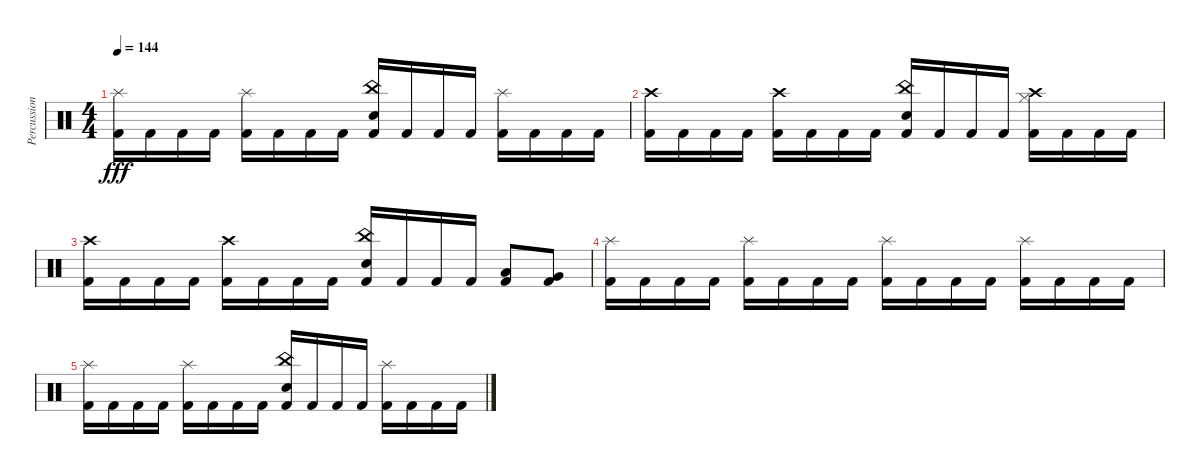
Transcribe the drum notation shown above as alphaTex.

\track ("Percussion" "Percussion") {instrument percussion}
\staff {score}
\articulation defaults
\ts (4 4)
\tempo 144
\clef neutral
\ks c
("Splash (hit)" "Kick (hit) 2").16{dy fff volume 5} "Kick (hit) 2".16 "Kick (hit) 2".16 "Kick (hit) 2".16 ("Splash (hit)" "Kick (hit) 2").16 "Kick (hit) 2".16 "Kick (hit) 2".16 "Kick (hit) 2".16 ("China (hit)" "Electric Snare (hit)" "Kick (hit) 2").16 "Kick (hit) 2".16 "Kick (hit) 2".16 "Kick (hit) 2".16 ("Splash (hit)" "Kick (hit) 2").16 "Kick (hit) 2".16 "Kick (hit) 2".16 "Kick (hit) 2".16 |
("Crash high (hit)" "Kick (hit) 2").16 "Kick (hit) 2".16 "Kick (hit) 2".16 "Kick (hit) 2".16 ("Crash high (hit)" "Kick (hit) 2").16 "Kick (hit) 2".16 "Kick (hit) 2".16 "Kick (hit) 2".16 ("China (hit)" "Electric Snare (hit)" "Kick (hit) 2").16 "Kick (hit) 2".16 "Kick (hit) 2".16 "Kick (hit) 2".16 ("Crash high (hit)" "Hi-Hat (closed)" "Kick (hit) 2").16 "Kick (hit) 2".16 "Kick (hit) 2".16 "Kick (hit) 2".16 |
("Crash high (hit)" "Kick (hit) 2").16{volume 2} "Kick (hit) 2".16 "Kick (hit) 2".16 "Kick (hit) 2".16 ("Crash high (hit)" "Kick (hit) 2").16 "Kick (hit) 2".16 "Kick (hit) 2".16 "Kick (hit) 2".16 ("China (hit)" "Electric Snare (hit)" "Kick (hit) 2").16 "Kick (hit) 2".16 "Kick (hit) 2".16 "Kick (hit) 2".16 ("Low Tom (hit)" "Kick (hit) 2").8 ("Very Low Tom (hit)" "Kick (hit) 2").8 |
("Splash (hit)" "Kick (hit) 2").16 "Kick (hit) 2".16 "Kick (hit) 2".16 "Kick (hit) 2".16 ("Splash (hit)" "Kick (hit) 2").16 "Kick (hit) 2".16 "Kick (hit) 2".16 "Kick (hit) 2".16 ("Splash (hit)" "Kick (hit) 2").16 "Kick (hit) 2".16 "Kick (hit) 2".16 "Kick (hit) 2".16 ("Splash (hit)" "Kick (hit) 2").16 "Kick (hit) 2".16 "Kick (hit) 2".16 "Kick (hit) 2".16 |
("Splash (hit)" "Kick (hit) 2").16{volume 0} "Kick (hit) 2".16 "Kick (hit) 2".16 "Kick (hit) 2".16 ("Splash (hit)" "Kick (hit) 2").16 "Kick (hit) 2".16 "Kick (hit) 2".16 "Kick (hit) 2".16 ("China (hit)" "Electric Snare (hit)" "Kick (hit) 2").16 "Kick (hit) 2".16 "Kick (hit) 2".16 "Kick (hit) 2".16 ("Splash (hit)" "Kick (hit) 2").16 "Kick (hit) 2".16 "Kick (hit) 2".16 "Kick (hit) 2".16
